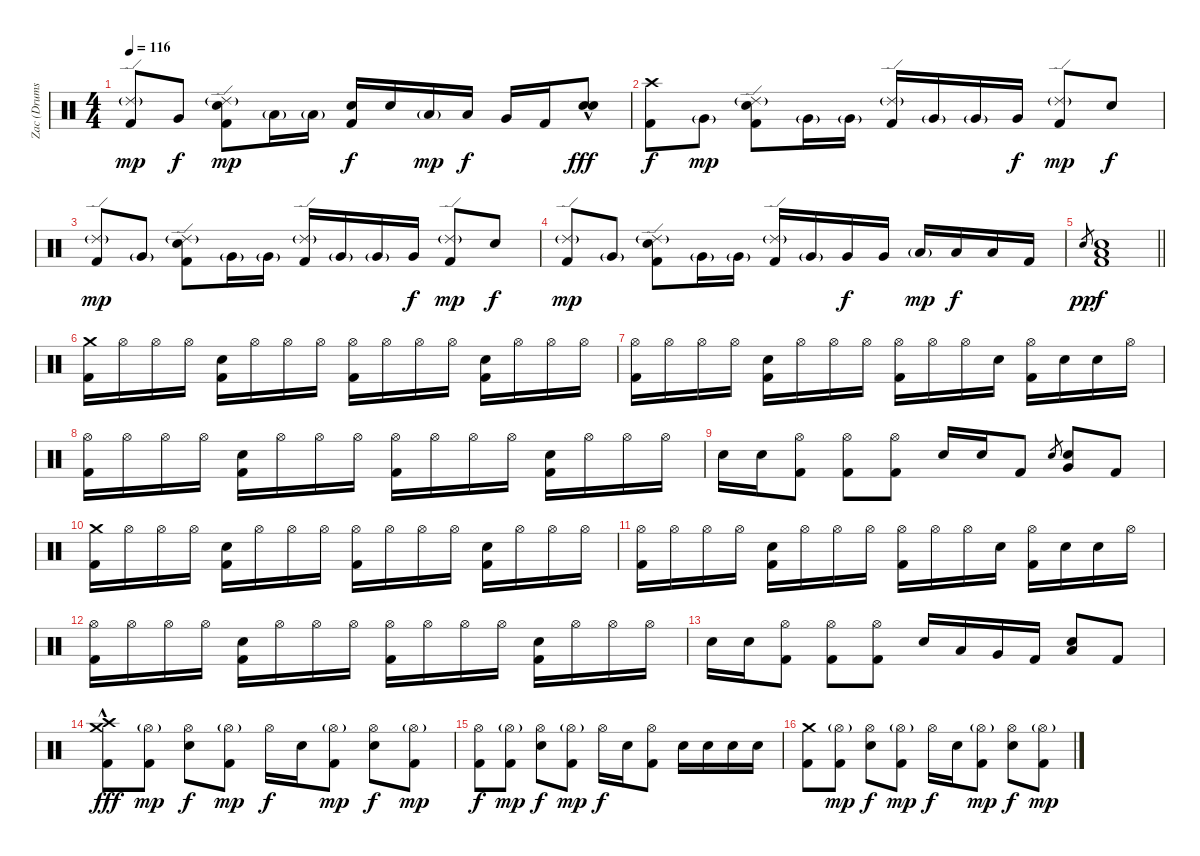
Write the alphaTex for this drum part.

\track ("Zac (Drums)" "Zac (Drums") {instrument percussion}
\staff {score}
\articulation defaults
\ts (4 4)
\tempo 116
\clef neutral
\ks c
("Ride (edge) 2"{g} "Kick (hit) 2").8{dy mp} "Very Low Tom (hit)".8{dy f} ("Ride (edge) 2"{g} "Snare (hit) 2" "Kick (hit) 2").8{dy mp} "Low Tom (hit)"{g}.16 "Low Tom (hit)"{g}.16 ("Electric Snare (hit)" "Kick (hit) 2").16{dy f} "Electric Snare (hit)".16 "Low Tom (hit)"{g}.16{dy mp} "Low Tom (hit)".16{dy f} "Very Low Tom (hit)".16 "Kick (hit) 2".16 ("Electric Snare (hit)"{hac} "Electric Snare (hit)"{hac}).8{dy fff} |
("Crash high (hit)" "Kick (hit) 2").8{dy f} "Very Low Tom (hit)"{g}.8{dy mp} ("Ride (edge) 2"{g} "Snare (hit) 2" "Kick (hit) 2").8 "Very Low Tom (hit)"{g}.16 "Very Low Tom (hit)"{g}.16 ("Ride (edge) 2"{g} "Kick (hit) 2").16 "Very Low Tom (hit)"{g}.16 "Very Low Tom (hit)"{g}.16 "Very Low Tom (hit)".16{dy f} ("Ride (edge) 2"{g} "Kick (hit) 2").8{dy mp} "Snare (hit) 2".8{dy f} |
("Ride (edge) 2"{g} "Kick (hit) 2").8{dy mp} "Very Low Tom (hit)"{g}.8 ("Ride (edge) 2"{g} "Snare (hit) 2" "Kick (hit) 2").8 "Very Low Tom (hit)"{g}.16 "Very Low Tom (hit)"{g}.16 ("Ride (edge) 2"{g} "Kick (hit) 2").16 "Very Low Tom (hit)"{g}.16 "Very Low Tom (hit)"{g}.16 "Very Low Tom (hit)".16{dy f} ("Ride (edge) 2"{g} "Kick (hit) 2").8{dy mp} "Snare (hit) 2".8{dy f} |
("Ride (edge) 2"{g} "Kick (hit) 2").8{dy mp} "Very Low Tom (hit)"{g}.8 ("Ride (edge) 2"{g} "Snare (hit) 2" "Kick (hit) 2").8 "Very Low Tom (hit)"{g}.16 "Very Low Tom (hit)"{g}.16 ("Ride (edge) 2"{g} "Kick (hit) 2").16 "Very Low Tom (hit)"{g}.16 "Very Low Tom (hit)".16{dy f} "Very Low Tom (hit)".16 "Low Floor Tom (hit)"{g}.16{dy mp} "Low Floor Tom (hit)".16{dy f} "Low Floor Tom (hit)".16 "Kick (hit) 2".16 |
\barLineRight lightlight "Electric Snare (hit)".8{gr dy pp}
("Electric Snare (hit)" "Low Floor Tom (hit)" "Kick (hit) 2").1{dy f} |
("Crash medium (hit)" "Kick (hit) 2").16 "Hi-Hat (open)".16 "Hi-Hat (open)".16 "Hi-Hat (open)".16 ("Electric Snare (hit)" "Kick (hit) 2").16 "Hi-Hat (open)".16 "Hi-Hat (open)".16 "Hi-Hat (open)".16 ("Hi-Hat (open)" "Kick (hit) 2").16 "Hi-Hat (open)".16 "Hi-Hat (open)".16 "Hi-Hat (open)".16 ("Electric Snare (hit)" "Kick (hit) 2").16 "Hi-Hat (open)".16 "Hi-Hat (open)".16 "Hi-Hat (open)".16 |
("Hi-Hat (open)" "Kick (hit) 2").16 "Hi-Hat (open)".16 "Hi-Hat (open)".16 "Hi-Hat (open)".16 ("Electric Snare (hit)" "Kick (hit) 2").16 "Hi-Hat (open)".16 "Hi-Hat (open)".16 "Hi-Hat (open)".16 ("Hi-Hat (open)" "Kick (hit) 2").16 "Hi-Hat (open)".16 "Hi-Hat (open)".16 "Electric Snare (hit)".16 ("Hi-Hat (open)" "Kick (hit) 2").16 "Electric Snare (hit)".16 "Electric Snare (hit)".16 "Hi-Hat (open)".16 |
("Hi-Hat (open)" "Kick (hit) 2").16 "Hi-Hat (open)".16 "Hi-Hat (open)".16 "Hi-Hat (open)".16 ("Electric Snare (hit)" "Kick (hit) 2").16 "Hi-Hat (open)".16 "Hi-Hat (open)".16 "Hi-Hat (open)".16 ("Hi-Hat (open)" "Kick (hit) 2").16 "Hi-Hat (open)".16 "Hi-Hat (open)".16 "Hi-Hat (open)".16 ("Electric Snare (hit)" "Kick (hit) 2").16 "Hi-Hat (open)".16 "Hi-Hat (open)".16 "Hi-Hat (open)".16 |
"Electric Snare (hit)".16 "Electric Snare (hit)".16 ("Hi-Hat (open)" "Kick (hit) 2").8 ("Hi-Hat (open)" "Kick (hit) 2").8 ("Hi-Hat (open)" "Kick (hit) 2").8 "Electric Snare (hit)".16 "Electric Snare (hit)".16 "Kick (hit) 2".8 "Electric Snare (hit)".8{gr} ("Electric Snare (hit)" "Very Low Tom (hit)").8 "Kick (hit) 2".8 |
("Crash medium (hit)" "Kick (hit) 2").16 "Hi-Hat (open)".16 "Hi-Hat (open)".16 "Hi-Hat (open)".16 ("Electric Snare (hit)" "Kick (hit) 2").16 "Hi-Hat (open)".16 "Hi-Hat (open)".16 "Hi-Hat (open)".16 ("Hi-Hat (open)" "Kick (hit) 2").16 "Hi-Hat (open)".16 "Hi-Hat (open)".16 "Hi-Hat (open)".16 ("Electric Snare (hit)" "Kick (hit) 2").16 "Hi-Hat (open)".16 "Hi-Hat (open)".16 "Hi-Hat (open)".16 |
("Hi-Hat (open)" "Kick (hit) 2").16 "Hi-Hat (open)".16 "Hi-Hat (open)".16 "Hi-Hat (open)".16 ("Electric Snare (hit)" "Kick (hit) 2").16 "Hi-Hat (open)".16 "Hi-Hat (open)".16 "Hi-Hat (open)".16 ("Hi-Hat (open)" "Kick (hit) 2").16 "Hi-Hat (open)".16 "Hi-Hat (open)".16 "Electric Snare (hit)".16 ("Hi-Hat (open)" "Kick (hit) 2").16 "Electric Snare (hit)".16 "Electric Snare (hit)".16 "Hi-Hat (open)".16 |
("Hi-Hat (open)" "Kick (hit) 2").16 "Hi-Hat (open)".16 "Hi-Hat (open)".16 "Hi-Hat (open)".16 ("Electric Snare (hit)" "Kick (hit) 2").16 "Hi-Hat (open)".16 "Hi-Hat (open)".16 "Hi-Hat (open)".16 ("Hi-Hat (open)" "Kick (hit) 2").16 "Hi-Hat (open)".16 "Hi-Hat (open)".16 "Hi-Hat (open)".16 ("Electric Snare (hit)" "Kick (hit) 2").16 "Hi-Hat (open)".16 "Hi-Hat (open)".16 "Hi-Hat (open)".16 |
"Electric Snare (hit)".16 "Electric Snare (hit)".16 ("Hi-Hat (open)" "Kick (hit) 2").8 ("Hi-Hat (open)" "Kick (hit) 2").8 ("Hi-Hat (open)" "Kick (hit) 2").8 "Electric Snare (hit)".16 "Low Tom (hit)".16 "Very Low Tom (hit)".16 "Kick (hit) 2".16 ("Electric Snare (hit)" "Low Floor Tom (hit)").8 "Kick (hit) 2".8 |
("Crash high (hit)"{hac} "Crash medium (hit)" "Kick (hit) 2").8{dy fff} ("Hi-Hat (open)"{g} "Kick (hit) 2").8{dy mp} ("Hi-Hat (open)" "Electric Snare (hit)").8{dy f} ("Hi-Hat (open)"{g} "Kick (hit) 2").8{dy mp} "Hi-Hat (open)".16{dy f} "Electric Snare (hit)".16 ("Hi-Hat (open)"{g} "Kick (hit) 2").8{dy mp} ("Hi-Hat (open)" "Electric Snare (hit)").8{dy f} ("Hi-Hat (open)"{g} "Kick (hit) 2").8{dy mp} |
("Hi-Hat (open)" "Kick (hit) 2").8{dy f} ("Hi-Hat (open)"{g} "Kick (hit) 2").8{dy mp} ("Hi-Hat (open)" "Electric Snare (hit)").8{dy f} ("Hi-Hat (open)"{g} "Kick (hit) 2").8{dy mp} "Hi-Hat (open)".16{dy f} "Electric Snare (hit)".16 ("Hi-Hat (open)" "Kick (hit) 2").8 "Electric Snare (hit)".16 "Electric Snare (hit)".16 "Electric Snare (hit)".16 "Electric Snare (hit)".16 |
("Crash medium (hit)" "Kick (hit) 2").8 ("Hi-Hat (open)"{g} "Kick (hit) 2").8{dy mp} ("Hi-Hat (open)" "Electric Snare (hit)").8{dy f} ("Hi-Hat (open)"{g} "Kick (hit) 2").8{dy mp} "Hi-Hat (open)".16{dy f} "Electric Snare (hit)".16 ("Hi-Hat (open)"{g} "Kick (hit) 2").8{dy mp} ("Hi-Hat (open)" "Electric Snare (hit)").8{dy f} ("Hi-Hat (open)"{g} "Kick (hit) 2").8{dy mp}
